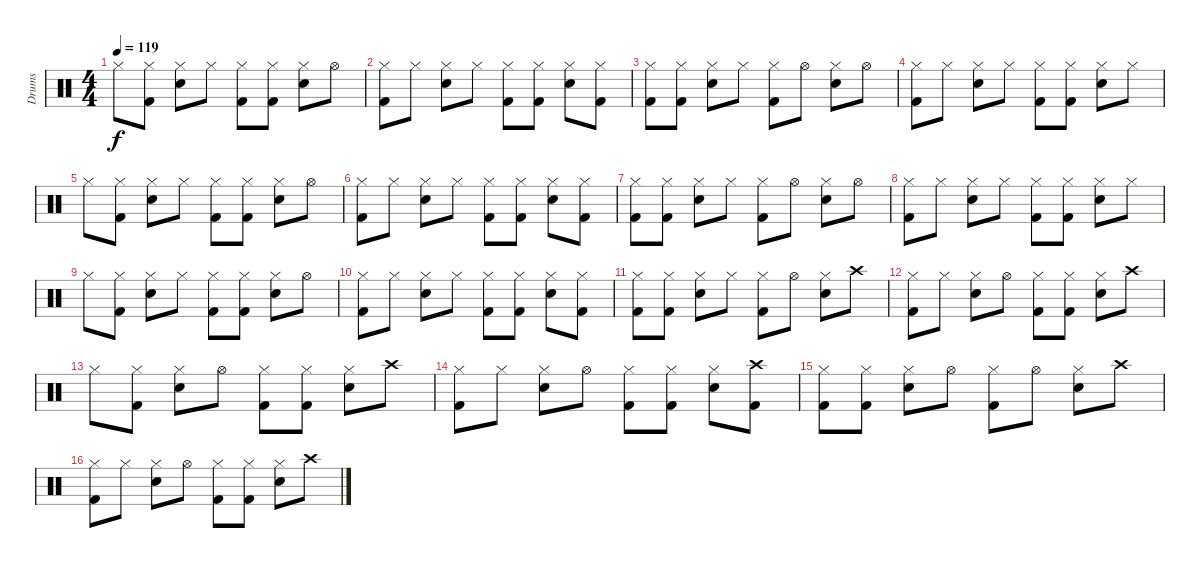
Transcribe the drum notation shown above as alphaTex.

\track ("Drums" "Drums") {instrument percussion}
\staff {score}
\articulation defaults
\ts (4 4)
\tempo 119
\clef neutral
\ks c "Hi-Hat (closed)".8{dy f}
("Hi-Hat (closed)" "Kick (hit) 2").8 ("Hi-Hat (closed)" "Snare (hit) 2").8 "Hi-Hat (closed)".8 ("Hi-Hat (closed)" "Kick (hit) 2").8 ("Hi-Hat (closed)" "Kick (hit) 2").8 ("Hi-Hat (closed)" "Snare (hit) 2").8 "Hi-Hat (open)".8 |
("Hi-Hat (closed)" "Kick (hit) 2").8 "Hi-Hat (closed)".8 ("Hi-Hat (closed)" "Snare (hit) 2").8 "Hi-Hat (closed)".8 ("Hi-Hat (closed)" "Kick (hit) 2").8 ("Hi-Hat (closed)" "Kick (hit) 2").8 ("Hi-Hat (closed)" "Snare (hit) 2").8 ("Hi-Hat (closed)" "Kick (hit) 2").8 |
("Hi-Hat (closed)" "Kick (hit) 2").8 ("Hi-Hat (closed)" "Kick (hit) 2").8 ("Hi-Hat (closed)" "Snare (hit) 2").8 "Hi-Hat (closed)".8 ("Hi-Hat (closed)" "Kick (hit) 2").8 "Hi-Hat (open)".8 ("Hi-Hat (closed)" "Snare (hit) 2").8 "Hi-Hat (open)".8 |
("Hi-Hat (closed)" "Kick (hit) 2").8 "Hi-Hat (closed)".8 ("Hi-Hat (closed)" "Snare (hit) 2").8 "Hi-Hat (closed)".8 ("Hi-Hat (closed)" "Kick (hit) 2").8 ("Hi-Hat (closed)" "Kick (hit) 2").8 ("Hi-Hat (closed)" "Snare (hit) 2").8 "Hi-Hat (closed)".8 |
"Hi-Hat (closed)".8 ("Hi-Hat (closed)" "Kick (hit) 2").8 ("Hi-Hat (closed)" "Snare (hit) 2").8 "Hi-Hat (closed)".8 ("Hi-Hat (closed)" "Kick (hit) 2").8 ("Hi-Hat (closed)" "Kick (hit) 2").8 ("Hi-Hat (closed)" "Snare (hit) 2").8 "Hi-Hat (open)".8 |
("Hi-Hat (closed)" "Kick (hit) 2").8 "Hi-Hat (closed)".8 ("Hi-Hat (closed)" "Snare (hit) 2").8 "Hi-Hat (closed)".8 ("Hi-Hat (closed)" "Kick (hit) 2").8 ("Hi-Hat (closed)" "Kick (hit) 2").8 ("Hi-Hat (closed)" "Snare (hit) 2").8 ("Hi-Hat (closed)" "Kick (hit) 2").8 |
("Hi-Hat (closed)" "Kick (hit) 2").8 ("Hi-Hat (closed)" "Kick (hit) 2").8 ("Hi-Hat (closed)" "Snare (hit) 2").8 "Hi-Hat (closed)".8 ("Hi-Hat (closed)" "Kick (hit) 2").8 "Hi-Hat (open)".8 ("Hi-Hat (closed)" "Snare (hit) 2").8 "Hi-Hat (open)".8 |
("Hi-Hat (closed)" "Kick (hit) 2").8 "Hi-Hat (closed)".8 ("Hi-Hat (closed)" "Snare (hit) 2").8 "Hi-Hat (closed)".8 ("Hi-Hat (closed)" "Kick (hit) 2").8 ("Hi-Hat (closed)" "Kick (hit) 2").8 ("Hi-Hat (closed)" "Snare (hit) 2").8 "Hi-Hat (closed)".8 |
"Hi-Hat (closed)".8 ("Hi-Hat (closed)" "Kick (hit) 2").8 ("Hi-Hat (closed)" "Snare (hit) 2").8 "Hi-Hat (closed)".8 ("Hi-Hat (closed)" "Kick (hit) 2").8 ("Hi-Hat (closed)" "Kick (hit) 2").8 ("Hi-Hat (closed)" "Snare (hit) 2").8 "Hi-Hat (open)".8 |
("Hi-Hat (closed)" "Kick (hit) 2").8 "Hi-Hat (closed)".8 ("Hi-Hat (closed)" "Snare (hit) 2").8 "Hi-Hat (closed)".8 ("Hi-Hat (closed)" "Kick (hit) 2").8 ("Hi-Hat (closed)" "Kick (hit) 2").8 ("Hi-Hat (closed)" "Snare (hit) 2").8 ("Hi-Hat (closed)" "Kick (hit) 2").8 |
("Hi-Hat (closed)" "Kick (hit) 2").8 ("Hi-Hat (closed)" "Kick (hit) 2").8 ("Hi-Hat (closed)" "Snare (hit) 2").8 "Hi-Hat (closed)".8 ("Hi-Hat (closed)" "Kick (hit) 2").8 "Hi-Hat (open)".8 ("Hi-Hat (closed)" "Snare (hit) 2").8 "Crash high (hit)".8 |
("Hi-Hat (closed)" "Kick (hit) 2").8 "Hi-Hat (closed)".8 ("Hi-Hat (closed)" "Snare (hit) 2").8 "Hi-Hat (open)".8 ("Hi-Hat (closed)" "Kick (hit) 2").8 ("Hi-Hat (closed)" "Kick (hit) 2").8 ("Hi-Hat (closed)" "Snare (hit) 2").8 "Crash high (hit)".8 |
"Hi-Hat (closed)".8 ("Hi-Hat (closed)" "Kick (hit) 2").8 ("Hi-Hat (closed)" "Snare (hit) 2").8 "Hi-Hat (open)".8 ("Hi-Hat (closed)" "Kick (hit) 2").8 ("Hi-Hat (closed)" "Kick (hit) 2").8 ("Hi-Hat (closed)" "Snare (hit) 2").8 "Crash high (hit)".8 |
("Hi-Hat (closed)" "Kick (hit) 2").8 "Hi-Hat (closed)".8 ("Hi-Hat (closed)" "Snare (hit) 2").8 "Hi-Hat (open)".8 ("Hi-Hat (closed)" "Kick (hit) 2").8 ("Hi-Hat (closed)" "Kick (hit) 2").8 ("Hi-Hat (closed)" "Snare (hit) 2").8 ("Crash high (hit)" "Kick (hit) 2").8 |
("Hi-Hat (closed)" "Kick (hit) 2").8 ("Hi-Hat (closed)" "Kick (hit) 2").8 ("Hi-Hat (closed)" "Snare (hit) 2").8 "Hi-Hat (open)".8 ("Hi-Hat (closed)" "Kick (hit) 2").8 "Hi-Hat (open)".8 ("Hi-Hat (closed)" "Snare (hit) 2").8 "Crash high (hit)".8 |
("Hi-Hat (closed)" "Kick (hit) 2").8 "Hi-Hat (closed)".8 ("Hi-Hat (closed)" "Snare (hit) 2").8 "Hi-Hat (open)".8 ("Hi-Hat (closed)" "Kick (hit) 2").8 ("Hi-Hat (closed)" "Kick (hit) 2").8 ("Hi-Hat (closed)" "Snare (hit) 2").8 "Crash high (hit)".8
